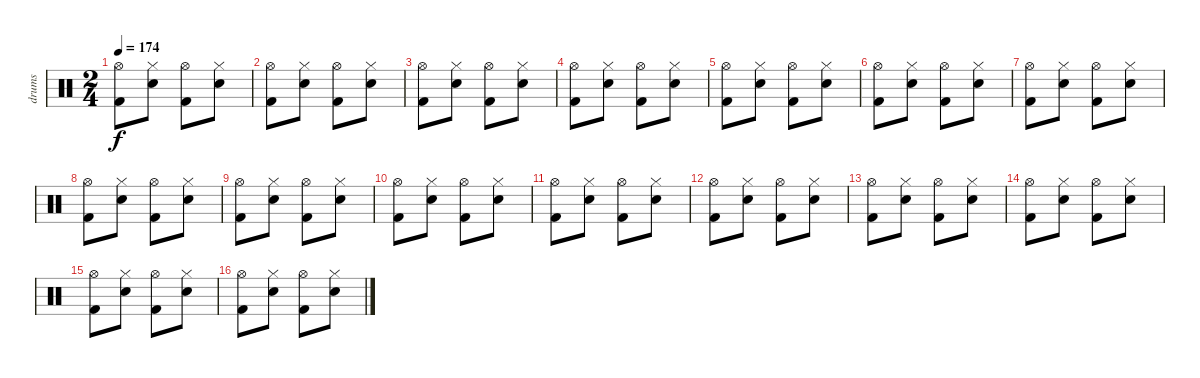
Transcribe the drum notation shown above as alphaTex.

\track ("drums" "drums") {instrument percussion}
\staff {score}
\articulation defaults
\ts (2 4)
\tempo 174
\clef neutral
\ks c
("Kick (hit) 2" "Hi-Hat (open)").8{dy f} ("Snare (hit) 2" "Hi-Hat (closed)").8 ("Kick (hit) 2" "Hi-Hat (open)").8 ("Snare (hit) 2" "Hi-Hat (closed)").8 |
("Kick (hit) 2" "Hi-Hat (open)").8 ("Snare (hit) 2" "Hi-Hat (closed)").8 ("Kick (hit) 2" "Hi-Hat (open)").8 ("Snare (hit) 2" "Hi-Hat (closed)").8 |
("Kick (hit) 2" "Hi-Hat (open)").8 ("Snare (hit) 2" "Hi-Hat (closed)").8 ("Kick (hit) 2" "Hi-Hat (open)").8 ("Snare (hit) 2" "Hi-Hat (closed)").8 |
("Hi-Hat (open)" "Kick (hit) 2").8 ("Snare (hit) 2" "Hi-Hat (closed)").8 ("Kick (hit) 2" "Hi-Hat (open)").8 ("Snare (hit) 2" "Hi-Hat (closed)").8 |
("Kick (hit) 2" "Hi-Hat (open)").8 ("Snare (hit) 2" "Hi-Hat (closed)").8 ("Kick (hit) 2" "Hi-Hat (open)").8 ("Snare (hit) 2" "Hi-Hat (closed)").8 |
("Kick (hit) 2" "Hi-Hat (open)").8 ("Snare (hit) 2" "Hi-Hat (closed)").8 ("Kick (hit) 2" "Hi-Hat (open)").8 ("Snare (hit) 2" "Hi-Hat (closed)").8 |
("Kick (hit) 2" "Hi-Hat (open)").8 ("Snare (hit) 2" "Hi-Hat (closed)").8 ("Kick (hit) 2" "Hi-Hat (open)").8 ("Snare (hit) 2" "Hi-Hat (closed)").8 |
("Hi-Hat (open)" "Kick (hit) 2").8 ("Snare (hit) 2" "Hi-Hat (closed)").8 ("Kick (hit) 2" "Hi-Hat (open)").8 ("Snare (hit) 2" "Hi-Hat (closed)").8 |
("Kick (hit) 2" "Hi-Hat (open)").8 ("Snare (hit) 2" "Hi-Hat (closed)").8 ("Kick (hit) 2" "Hi-Hat (open)").8 ("Snare (hit) 2" "Hi-Hat (closed)").8 |
("Kick (hit) 2" "Hi-Hat (open)").8 ("Snare (hit) 2" "Hi-Hat (closed)").8 ("Kick (hit) 2" "Hi-Hat (open)").8 ("Snare (hit) 2" "Hi-Hat (closed)").8 |
("Kick (hit) 2" "Hi-Hat (open)").8 ("Snare (hit) 2" "Hi-Hat (closed)").8 ("Kick (hit) 2" "Hi-Hat (open)").8 ("Snare (hit) 2" "Hi-Hat (closed)").8 |
("Hi-Hat (open)" "Kick (hit) 2").8 ("Snare (hit) 2" "Hi-Hat (closed)").8 ("Kick (hit) 2" "Hi-Hat (open)").8 ("Snare (hit) 2" "Hi-Hat (closed)").8 |
("Kick (hit) 2" "Hi-Hat (open)").8 ("Snare (hit) 2" "Hi-Hat (closed)").8 ("Kick (hit) 2" "Hi-Hat (open)").8 ("Snare (hit) 2" "Hi-Hat (closed)").8 |
("Kick (hit) 2" "Hi-Hat (open)").8 ("Snare (hit) 2" "Hi-Hat (closed)").8 ("Kick (hit) 2" "Hi-Hat (open)").8 ("Snare (hit) 2" "Hi-Hat (closed)").8 |
("Kick (hit) 2" "Hi-Hat (open)").8 ("Snare (hit) 2" "Hi-Hat (closed)").8 ("Kick (hit) 2" "Hi-Hat (open)").8 ("Snare (hit) 2" "Hi-Hat (closed)").8 |
("Hi-Hat (open)" "Kick (hit) 2").8 ("Snare (hit) 2" "Hi-Hat (closed)").8 ("Kick (hit) 2" "Hi-Hat (open)").8 ("Snare (hit) 2" "Hi-Hat (closed)").8
